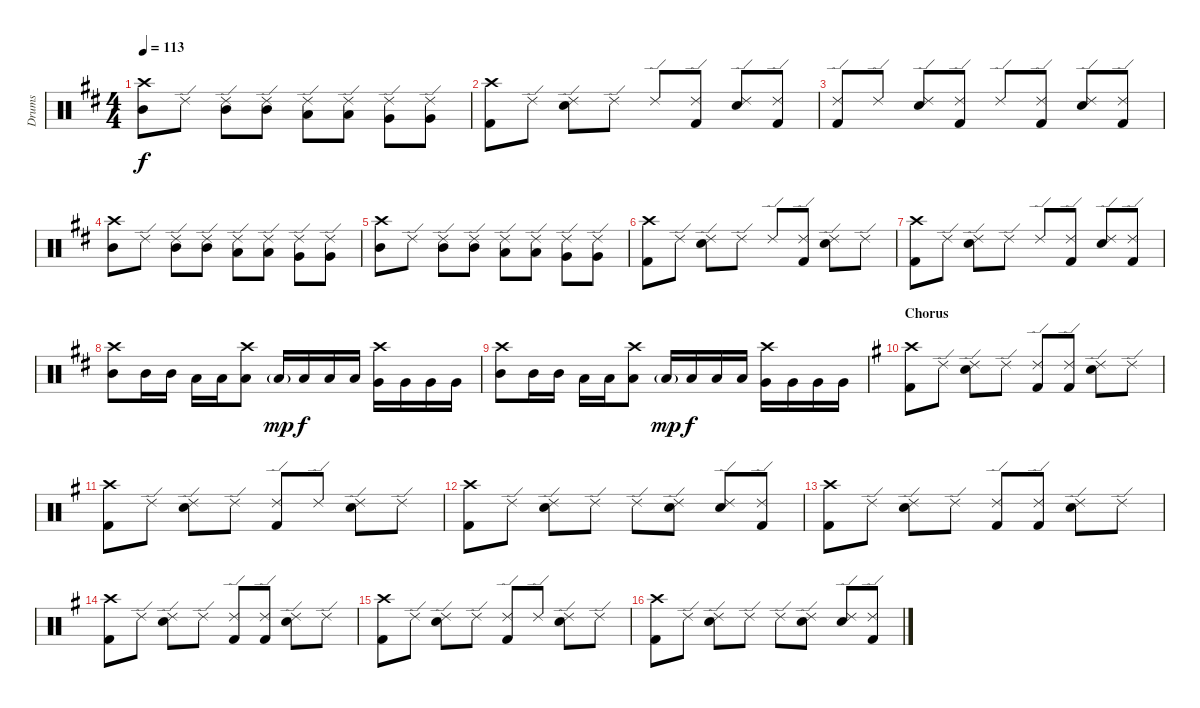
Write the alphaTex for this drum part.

\track ("Drums" "Drums") {instrument percussion}
\staff {score}
\articulation defaults
\ts (4 4)
\tempo 113
\clef neutral
\ks d
("Crash high (hit)" "Mid Tom (hit)").8{dy f} "Ride (edge) 2".8 ("Ride (edge) 2" "Mid Tom (hit)").8 ("Ride (edge) 2" "Mid Tom (hit)").8 ("Ride (edge) 2" "Low Tom (hit)").8 ("Ride (edge) 2" "Low Tom (hit)").8 ("Ride (edge) 2" "Very Low Tom (hit)").8 ("Ride (edge) 2" "Very Low Tom (hit)").8 |
("Crash high (hit)" "Kick (hit) 2").8 "Ride (edge) 2".8 ("Ride (edge) 2" "Electric Snare (hit)").8 "Ride (edge) 2".8 "Ride (edge) 2".8 ("Ride (edge) 2" "Kick (hit) 2").8 ("Ride (edge) 2" "Electric Snare (hit)").8 ("Ride (edge) 2" "Kick (hit) 2").8 |
("Ride (edge) 2" "Kick (hit) 2").8 "Ride (edge) 2".8 ("Ride (edge) 2" "Electric Snare (hit)").8 ("Ride (edge) 2" "Kick (hit) 2").8 "Ride (edge) 2".8 ("Ride (edge) 2" "Kick (hit) 2").8 ("Ride (edge) 2" "Electric Snare (hit)").8 ("Ride (edge) 2" "Kick (hit) 2").8 |
("Crash high (hit)" "Mid Tom (hit)").8 "Ride (edge) 2".8 ("Ride (edge) 2" "Mid Tom (hit)").8 ("Ride (edge) 2" "Mid Tom (hit)").8 ("Ride (edge) 2" "Low Tom (hit)").8 ("Ride (edge) 2" "Low Tom (hit)").8 ("Ride (edge) 2" "Very Low Tom (hit)").8 ("Ride (edge) 2" "Very Low Tom (hit)").8 |
("Crash high (hit)" "Mid Tom (hit)").8 "Ride (edge) 2".8 ("Ride (edge) 2" "Mid Tom (hit)").8 ("Ride (edge) 2" "Mid Tom (hit)").8 ("Ride (edge) 2" "Low Tom (hit)").8 ("Ride (edge) 2" "Low Tom (hit)").8 ("Ride (edge) 2" "Very Low Tom (hit)").8 ("Ride (edge) 2" "Very Low Tom (hit)").8 |
("Crash high (hit)" "Kick (hit) 2").8 "Ride (edge) 2".8 ("Ride (edge) 2" "Electric Snare (hit)").8 "Ride (edge) 2".8 "Ride (edge) 2".8 ("Ride (edge) 2" "Kick (hit) 2").8 ("Ride (edge) 2" "Electric Snare (hit)").8 "Ride (edge) 2".8 |
("Crash high (hit)" "Kick (hit) 2").8 "Ride (edge) 2".8 ("Ride (edge) 2" "Electric Snare (hit)").8 "Ride (edge) 2".8 "Ride (edge) 2".8 ("Ride (edge) 2" "Kick (hit) 2").8 ("Ride (edge) 2" "Electric Snare (hit)").8 ("Ride (edge) 2" "Kick (hit) 2").8 |
("Crash high (hit)" "Mid Tom (hit)").8 "Mid Tom (hit)".16 "Mid Tom (hit)".16 "Low Tom (hit)".16 "Low Tom (hit)".16 ("Crash high (hit)" "Low Tom (hit)").8 "Low Tom (hit)"{g}.16{dy mp} "Low Tom (hit)".16{dy f} "Low Tom (hit)".16 "Low Tom (hit)".16 ("Crash high (hit)" "Very Low Tom (hit)").16 "Very Low Tom (hit)".16 "Very Low Tom (hit)".16 "Very Low Tom (hit)".16 |
("Crash high (hit)" "Mid Tom (hit)").8 "Mid Tom (hit)".16 "Mid Tom (hit)".16 "Low Tom (hit)".16 "Low Tom (hit)".16 ("Crash high (hit)" "Low Tom (hit)").8 "Low Tom (hit)"{g}.16{dy mp} "Low Tom (hit)".16{dy f} "Low Tom (hit)".16 "Low Tom (hit)".16 ("Crash high (hit)" "Very Low Tom (hit)").16 "Very Low Tom (hit)".16 "Very Low Tom (hit)".16 "Very Low Tom (hit)".16 |
\section ("" "Chorus")
\ks g
("Crash high (hit)" "Kick (hit) 2").8 "Ride (edge) 2".8 ("Ride (edge) 2" "Electric Snare (hit)").8 "Ride (edge) 2".8 ("Ride (edge) 2" "Kick (hit) 2").8 ("Ride (edge) 2" "Kick (hit) 2").8 ("Ride (edge) 2" "Electric Snare (hit)").8 "Ride (edge) 2".8 |
("Crash high (hit)" "Kick (hit) 2").8 "Ride (edge) 2".8 ("Ride (edge) 2" "Electric Snare (hit)").8 "Ride (edge) 2".8 ("Ride (edge) 2" "Kick (hit) 2").8 "Ride (edge) 2".8 ("Ride (edge) 2" "Electric Snare (hit)").8 "Ride (edge) 2".8 |
("Crash high (hit)" "Kick (hit) 2").8 "Ride (edge) 2".8 ("Ride (edge) 2" "Electric Snare (hit)").8 "Ride (edge) 2".8 "Ride (edge) 2".8 ("Ride (edge) 2" "Electric Snare (hit)").8 ("Ride (edge) 2" "Electric Snare (hit)").8 ("Ride (edge) 2" "Kick (hit) 2").8 |
("Crash high (hit)" "Kick (hit) 2").8 "Ride (edge) 2".8 ("Ride (edge) 2" "Electric Snare (hit)").8 "Ride (edge) 2".8 ("Ride (edge) 2" "Kick (hit) 2").8 ("Ride (edge) 2" "Kick (hit) 2").8 ("Ride (edge) 2" "Electric Snare (hit)").8 "Ride (edge) 2".8 |
("Crash high (hit)" "Kick (hit) 2").8 "Ride (edge) 2".8 ("Ride (edge) 2" "Electric Snare (hit)").8 "Ride (edge) 2".8 ("Ride (edge) 2" "Kick (hit) 2").8 ("Ride (edge) 2" "Kick (hit) 2").8 ("Ride (edge) 2" "Electric Snare (hit)").8 "Ride (edge) 2".8 |
("Crash high (hit)" "Kick (hit) 2").8 "Ride (edge) 2".8 ("Ride (edge) 2" "Electric Snare (hit)").8 "Ride (edge) 2".8 ("Ride (edge) 2" "Kick (hit) 2").8 "Ride (edge) 2".8 ("Ride (edge) 2" "Electric Snare (hit)").8 "Ride (edge) 2".8 |
("Crash high (hit)" "Kick (hit) 2").8 "Ride (edge) 2".8 ("Ride (edge) 2" "Electric Snare (hit)").8 "Ride (edge) 2".8 "Ride (edge) 2".8 ("Ride (edge) 2" "Electric Snare (hit)").8 ("Ride (edge) 2" "Electric Snare (hit)").8 ("Ride (edge) 2" "Kick (hit) 2").8
